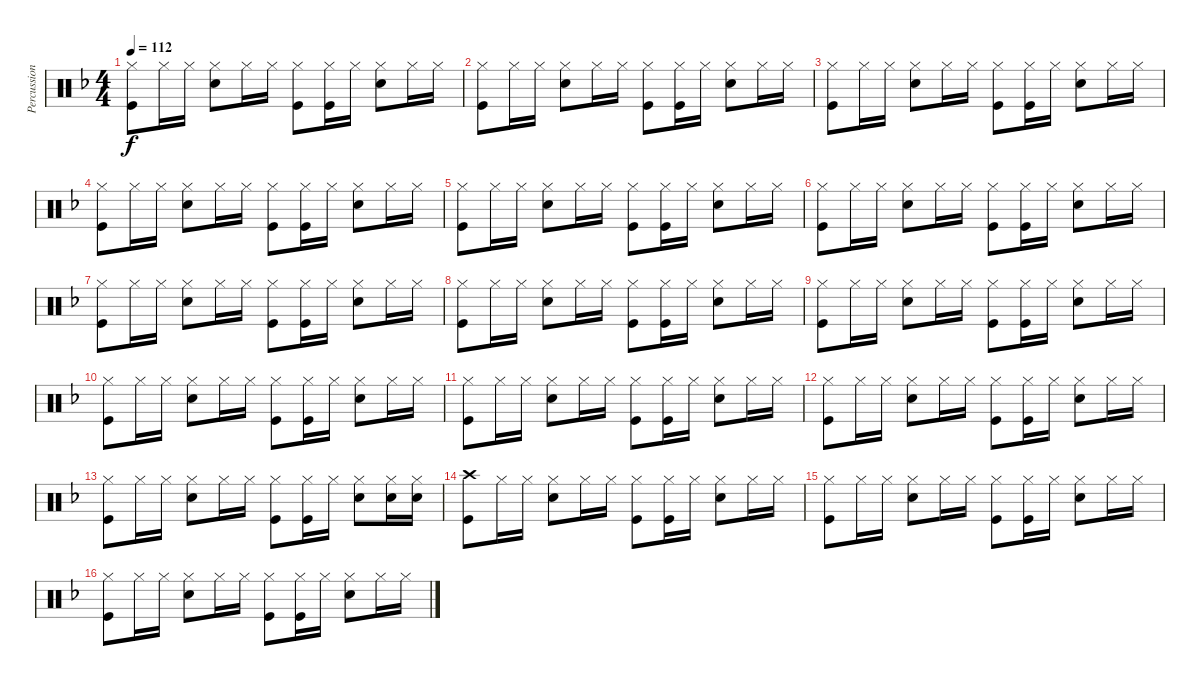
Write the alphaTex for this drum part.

\track ("Percussion" "Percussion") {instrument percussion}
\staff {score}
\articulation defaults
\ts (4 4)
\tempo 112
\clef neutral
\ks f
("Hi-Hat (closed)" "Kick (hit)").8{dy f} "Hi-Hat (closed)".16 "Hi-Hat (closed)".16 ("Hi-Hat (closed)" "Snare (hit) 2").8 "Hi-Hat (closed)".16 "Hi-Hat (closed)".16 ("Hi-Hat (closed)" "Kick (hit)").8 ("Hi-Hat (closed)" "Kick (hit)").16 "Hi-Hat (closed)".16 ("Hi-Hat (closed)" "Snare (hit) 2").8 "Hi-Hat (closed)".16 "Hi-Hat (closed)".16 |
("Hi-Hat (closed)" "Kick (hit)").8 "Hi-Hat (closed)".16 "Hi-Hat (closed)".16 ("Hi-Hat (closed)" "Snare (hit) 2").8 "Hi-Hat (closed)".16 "Hi-Hat (closed)".16 ("Hi-Hat (closed)" "Kick (hit)").8 ("Hi-Hat (closed)" "Kick (hit)").16 "Hi-Hat (closed)".16 ("Hi-Hat (closed)" "Snare (hit) 2").8 "Hi-Hat (closed)".16 "Hi-Hat (closed)".16 |
("Hi-Hat (closed)" "Kick (hit)").8 "Hi-Hat (closed)".16 "Hi-Hat (closed)".16 ("Hi-Hat (closed)" "Snare (hit) 2").8 "Hi-Hat (closed)".16 "Hi-Hat (closed)".16 ("Hi-Hat (closed)" "Kick (hit)").8 ("Hi-Hat (closed)" "Kick (hit)").16 "Hi-Hat (closed)".16 ("Hi-Hat (closed)" "Snare (hit) 2").8 "Hi-Hat (closed)".16 "Hi-Hat (closed)".16 |
("Hi-Hat (closed)" "Kick (hit)").8 "Hi-Hat (closed)".16 "Hi-Hat (closed)".16 ("Hi-Hat (closed)" "Snare (hit) 2").8 "Hi-Hat (closed)".16 "Hi-Hat (closed)".16 ("Hi-Hat (closed)" "Kick (hit)").8 ("Hi-Hat (closed)" "Kick (hit)").16 "Hi-Hat (closed)".16 ("Hi-Hat (closed)" "Snare (hit) 2").8 "Hi-Hat (closed)".16 "Hi-Hat (closed)".16 |
("Hi-Hat (closed)" "Kick (hit)").8 "Hi-Hat (closed)".16 "Hi-Hat (closed)".16 ("Hi-Hat (closed)" "Snare (hit) 2").8 "Hi-Hat (closed)".16 "Hi-Hat (closed)".16 ("Hi-Hat (closed)" "Kick (hit)").8 ("Hi-Hat (closed)" "Kick (hit)").16 "Hi-Hat (closed)".16 ("Hi-Hat (closed)" "Snare (hit) 2").8 "Hi-Hat (closed)".16 "Hi-Hat (closed)".16 |
("Hi-Hat (closed)" "Kick (hit)").8 "Hi-Hat (closed)".16 "Hi-Hat (closed)".16 ("Hi-Hat (closed)" "Snare (hit) 2").8 "Hi-Hat (closed)".16 "Hi-Hat (closed)".16 ("Hi-Hat (closed)" "Kick (hit)").8 ("Hi-Hat (closed)" "Kick (hit)").16 "Hi-Hat (closed)".16 ("Hi-Hat (closed)" "Snare (hit) 2").8 "Hi-Hat (closed)".16 "Hi-Hat (closed)".16 |
("Hi-Hat (closed)" "Kick (hit)").8 "Hi-Hat (closed)".16 "Hi-Hat (closed)".16 ("Hi-Hat (closed)" "Snare (hit) 2").8 "Hi-Hat (closed)".16 "Hi-Hat (closed)".16 ("Hi-Hat (closed)" "Kick (hit)").8 ("Hi-Hat (closed)" "Kick (hit)").16 "Hi-Hat (closed)".16 ("Hi-Hat (closed)" "Snare (hit) 2").8 "Hi-Hat (closed)".16 "Hi-Hat (closed)".16 |
("Hi-Hat (closed)" "Kick (hit)").8 "Hi-Hat (closed)".16 "Hi-Hat (closed)".16 ("Hi-Hat (closed)" "Snare (hit) 2").8 "Hi-Hat (closed)".16 "Hi-Hat (closed)".16 ("Hi-Hat (closed)" "Kick (hit)").8 ("Hi-Hat (closed)" "Kick (hit)").16 "Hi-Hat (closed)".16 ("Hi-Hat (closed)" "Snare (hit) 2").8 "Hi-Hat (closed)".16 "Hi-Hat (closed)".16 |
("Hi-Hat (closed)" "Kick (hit)").8 "Hi-Hat (closed)".16 "Hi-Hat (closed)".16 ("Hi-Hat (closed)" "Snare (hit) 2").8 "Hi-Hat (closed)".16 "Hi-Hat (closed)".16 ("Hi-Hat (closed)" "Kick (hit)").8 ("Hi-Hat (closed)" "Kick (hit)").16 "Hi-Hat (closed)".16 ("Hi-Hat (closed)" "Snare (hit) 2").8 "Hi-Hat (closed)".16 "Hi-Hat (closed)".16 |
("Hi-Hat (closed)" "Kick (hit)").8 "Hi-Hat (closed)".16 "Hi-Hat (closed)".16 ("Hi-Hat (closed)" "Snare (hit) 2").8 "Hi-Hat (closed)".16 "Hi-Hat (closed)".16 ("Hi-Hat (closed)" "Kick (hit)").8 ("Hi-Hat (closed)" "Kick (hit)").16 "Hi-Hat (closed)".16 ("Hi-Hat (closed)" "Snare (hit) 2").8 "Hi-Hat (closed)".16 "Hi-Hat (closed)".16 |
("Hi-Hat (closed)" "Kick (hit)").8 "Hi-Hat (closed)".16 "Hi-Hat (closed)".16 ("Hi-Hat (closed)" "Snare (hit) 2").8 "Hi-Hat (closed)".16 "Hi-Hat (closed)".16 ("Hi-Hat (closed)" "Kick (hit)").8 ("Hi-Hat (closed)" "Kick (hit)").16 "Hi-Hat (closed)".16 ("Hi-Hat (closed)" "Snare (hit) 2").8 "Hi-Hat (closed)".16 "Hi-Hat (closed)".16 |
("Hi-Hat (closed)" "Kick (hit)").8 "Hi-Hat (closed)".16 "Hi-Hat (closed)".16 ("Hi-Hat (closed)" "Snare (hit) 2").8 "Hi-Hat (closed)".16 "Hi-Hat (closed)".16 ("Hi-Hat (closed)" "Kick (hit)").8 ("Hi-Hat (closed)" "Kick (hit)").16 "Hi-Hat (closed)".16 ("Hi-Hat (closed)" "Snare (hit) 2").8 "Hi-Hat (closed)".16 "Hi-Hat (closed)".16 |
("Hi-Hat (closed)" "Kick (hit)").8 "Hi-Hat (closed)".16 "Hi-Hat (closed)".16 ("Hi-Hat (closed)" "Snare (hit) 2").8 "Hi-Hat (closed)".16 "Hi-Hat (closed)".16 ("Hi-Hat (closed)" "Kick (hit)").8 ("Hi-Hat (closed)" "Kick (hit)").16 "Hi-Hat (closed)".16 ("Hi-Hat (closed)" "Snare (hit) 2").8 ("Hi-Hat (closed)" "Snare (hit) 2").16 ("Hi-Hat (closed)" "Snare (hit) 2").16 |
("Crash high (hit)" "Kick (hit)").8 "Hi-Hat (closed)".16 "Hi-Hat (closed)".16 ("Hi-Hat (closed)" "Snare (hit) 2").8 "Hi-Hat (closed)".16 "Hi-Hat (closed)".16 ("Hi-Hat (closed)" "Kick (hit)").8 ("Hi-Hat (closed)" "Kick (hit)").16 "Hi-Hat (closed)".16 ("Hi-Hat (closed)" "Snare (hit) 2").8 "Hi-Hat (closed)".16 "Hi-Hat (closed)".16 |
("Hi-Hat (closed)" "Kick (hit)").8 "Hi-Hat (closed)".16 "Hi-Hat (closed)".16 ("Hi-Hat (closed)" "Snare (hit) 2").8 "Hi-Hat (closed)".16 "Hi-Hat (closed)".16 ("Hi-Hat (closed)" "Kick (hit)").8 ("Hi-Hat (closed)" "Kick (hit)").16 "Hi-Hat (closed)".16 ("Hi-Hat (closed)" "Snare (hit) 2").8 "Hi-Hat (closed)".16 "Hi-Hat (closed)".16 |
("Hi-Hat (closed)" "Kick (hit)").8 "Hi-Hat (closed)".16 "Hi-Hat (closed)".16 ("Hi-Hat (closed)" "Snare (hit) 2").8 "Hi-Hat (closed)".16 "Hi-Hat (closed)".16 ("Hi-Hat (closed)" "Kick (hit)").8 ("Hi-Hat (closed)" "Kick (hit)").16 "Hi-Hat (closed)".16 ("Hi-Hat (closed)" "Snare (hit) 2").8 "Hi-Hat (closed)".16 "Hi-Hat (closed)".16
